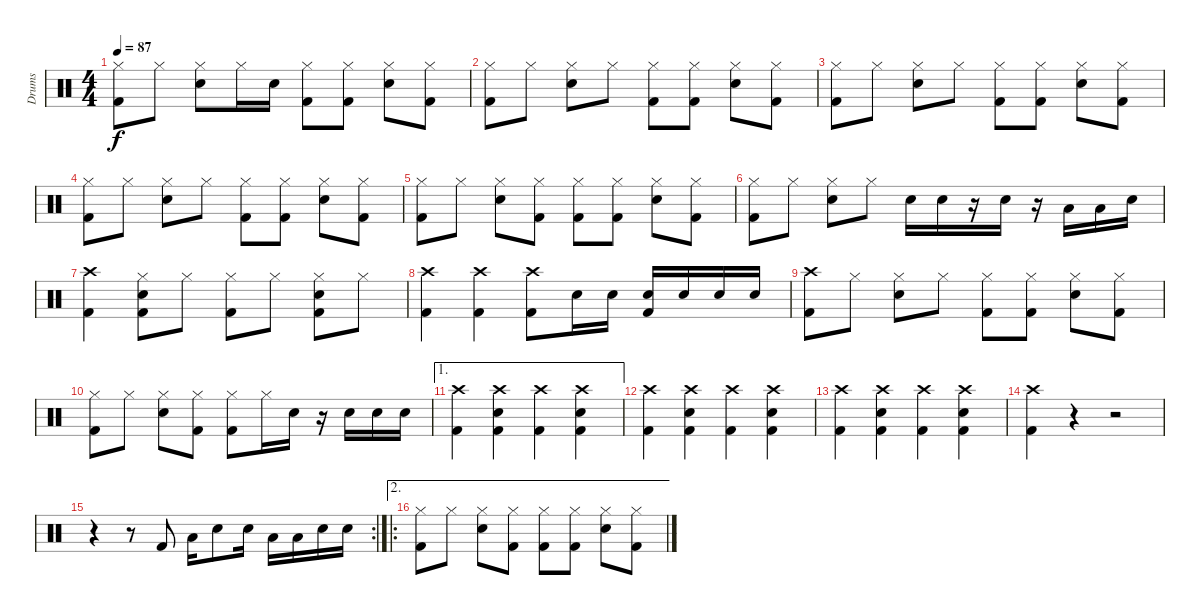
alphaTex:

\track ("Drums" "Drums") {instrument percussion}
\staff {score}
\articulation defaults
\ts (4 4)
\tempo 87
\clef neutral
\ks c
("Hi-Hat (closed)" "Kick (hit) 2").8{dy f} "Hi-Hat (closed)".8 ("Hi-Hat (closed)" "Snare (hit) 2").8 "Hi-Hat (closed)".16 "Snare (hit) 2".16 ("Hi-Hat (closed)" "Kick (hit) 2").8 ("Hi-Hat (closed)" "Kick (hit) 2").8 ("Hi-Hat (closed)" "Snare (hit) 2").8 ("Hi-Hat (closed)" "Kick (hit) 2").8 |
("Hi-Hat (closed)" "Kick (hit) 2").8 "Hi-Hat (closed)".8 ("Hi-Hat (closed)" "Snare (hit) 2").8 "Hi-Hat (closed)".8 ("Hi-Hat (closed)" "Kick (hit) 2").8 ("Hi-Hat (closed)" "Kick (hit) 2").8 ("Hi-Hat (closed)" "Snare (hit) 2").8 ("Hi-Hat (closed)" "Kick (hit) 2").8 |
("Hi-Hat (closed)" "Kick (hit) 2").8 "Hi-Hat (closed)".8 ("Hi-Hat (closed)" "Snare (hit) 2").8 "Hi-Hat (closed)".8 ("Hi-Hat (closed)" "Kick (hit) 2").8 ("Hi-Hat (closed)" "Kick (hit) 2").8 ("Hi-Hat (closed)" "Snare (hit) 2").8 ("Hi-Hat (closed)" "Kick (hit) 2").8 |
("Hi-Hat (closed)" "Kick (hit) 2").8 "Hi-Hat (closed)".8 ("Hi-Hat (closed)" "Snare (hit) 2").8 "Hi-Hat (closed)".8 ("Hi-Hat (closed)" "Kick (hit) 2").8 ("Hi-Hat (closed)" "Kick (hit) 2").8 ("Hi-Hat (closed)" "Snare (hit) 2").8 ("Hi-Hat (closed)" "Kick (hit) 2").8 |
("Hi-Hat (closed)" "Kick (hit) 2").8 "Hi-Hat (closed)".8 ("Hi-Hat (closed)" "Snare (hit) 2").8 ("Hi-Hat (closed)" "Kick (hit) 2").8 ("Hi-Hat (closed)" "Kick (hit) 2").8 ("Hi-Hat (closed)" "Kick (hit) 2").8 ("Hi-Hat (closed)" "Snare (hit) 2").8 ("Hi-Hat (closed)" "Kick (hit) 2").8 |
("Hi-Hat (closed)" "Kick (hit) 2").8 "Hi-Hat (closed)".8 ("Hi-Hat (closed)" "Snare (hit) 2").8 "Hi-Hat (closed)".8 "Snare (hit) 2".16 "Snare (hit) 2".16 r.16 "Snare (hit) 2".16 r.16 "Low Tom (hit)".16 "Low Tom (hit)".16 "Electric Snare (hit)".16 |
("Crash high (hit)" "Kick (hit) 2").4 ("Hi-Hat (closed)" "Snare (hit) 2" "Kick (hit) 2").8 "Hi-Hat (closed)".8 ("Hi-Hat (closed)" "Kick (hit) 2").8 "Hi-Hat (closed)".8 ("Hi-Hat (closed)" "Snare (hit) 2" "Kick (hit) 2").8 "Hi-Hat (closed)".8 |
("Crash high (hit)" "Kick (hit) 2").4 ("Crash high (hit)" "Kick (hit) 2").4 ("Crash high (hit)" "Kick (hit) 2").8 "Snare (hit) 2".16 "Snare (hit) 2".16 ("Snare (hit) 2" "Kick (hit) 2").16 "Snare (hit) 2".16 "Snare (hit) 2".16 "Snare (hit) 2".16 |
("Crash high (hit)" "Kick (hit) 2").8 "Hi-Hat (closed)".8 ("Hi-Hat (closed)" "Snare (hit) 2").8 "Hi-Hat (closed)".8 ("Hi-Hat (closed)" "Kick (hit) 2").8 ("Hi-Hat (closed)" "Kick (hit) 2").8 ("Hi-Hat (closed)" "Snare (hit) 2").8 ("Hi-Hat (closed)" "Kick (hit) 2").8 |
("Hi-Hat (closed)" "Kick (hit) 2").8 "Hi-Hat (closed)".8 ("Hi-Hat (closed)" "Snare (hit) 2").8 ("Hi-Hat (closed)" "Kick (hit) 2").8 ("Hi-Hat (closed)" "Kick (hit) 2").8 "Hi-Hat (closed)".16 "Snare (hit) 2".16 r.16 "Snare (hit) 2".16 "Snare (hit) 2".16 "Snare (hit) 2".16 |
\ae 1
("Crash high (hit)" "Kick (hit) 2").4 ("Crash high (hit)" "Snare (hit) 2" "Kick (hit) 2").4 ("Crash high (hit)" "Kick (hit) 2").4 ("Crash high (hit)" "Snare (hit) 2" "Kick (hit) 2").4 |
("Crash high (hit)" "Kick (hit) 2").4 ("Crash high (hit)" "Snare (hit) 2" "Kick (hit) 2").4 ("Crash high (hit)" "Kick (hit) 2").4 ("Crash high (hit)" "Snare (hit) 2" "Kick (hit) 2").4 |
("Crash high (hit)" "Kick (hit) 2").4 ("Crash high (hit)" "Snare (hit) 2" "Kick (hit) 2").4 ("Crash high (hit)" "Kick (hit) 2").4 ("Crash high (hit)" "Snare (hit) 2" "Kick (hit) 2").4 |
("Crash high (hit)" "Kick (hit) 2").4 r.4 r.2 |
\rc 2
r.4 r.8 "Kick (hit) 2".8 "Low Tom (hit)".16 "Snare (hit) 2".8 "Snare (hit) 2".16 "Low Tom (hit)".16 "Low Tom (hit)".16 "Snare (hit) 2".16 "Snare (hit) 2".16 |
\ae 2
\ro
("Hi-Hat (closed)" "Kick (hit) 2").8 "Hi-Hat (closed)".8 ("Hi-Hat (closed)" "Snare (hit) 2").8 ("Hi-Hat (closed)" "Kick (hit) 2").8 ("Hi-Hat (closed)" "Kick (hit) 2").8 ("Hi-Hat (closed)" "Kick (hit) 2").8 ("Hi-Hat (closed)" "Snare (hit) 2").8 ("Hi-Hat (closed)" "Kick (hit) 2").8
